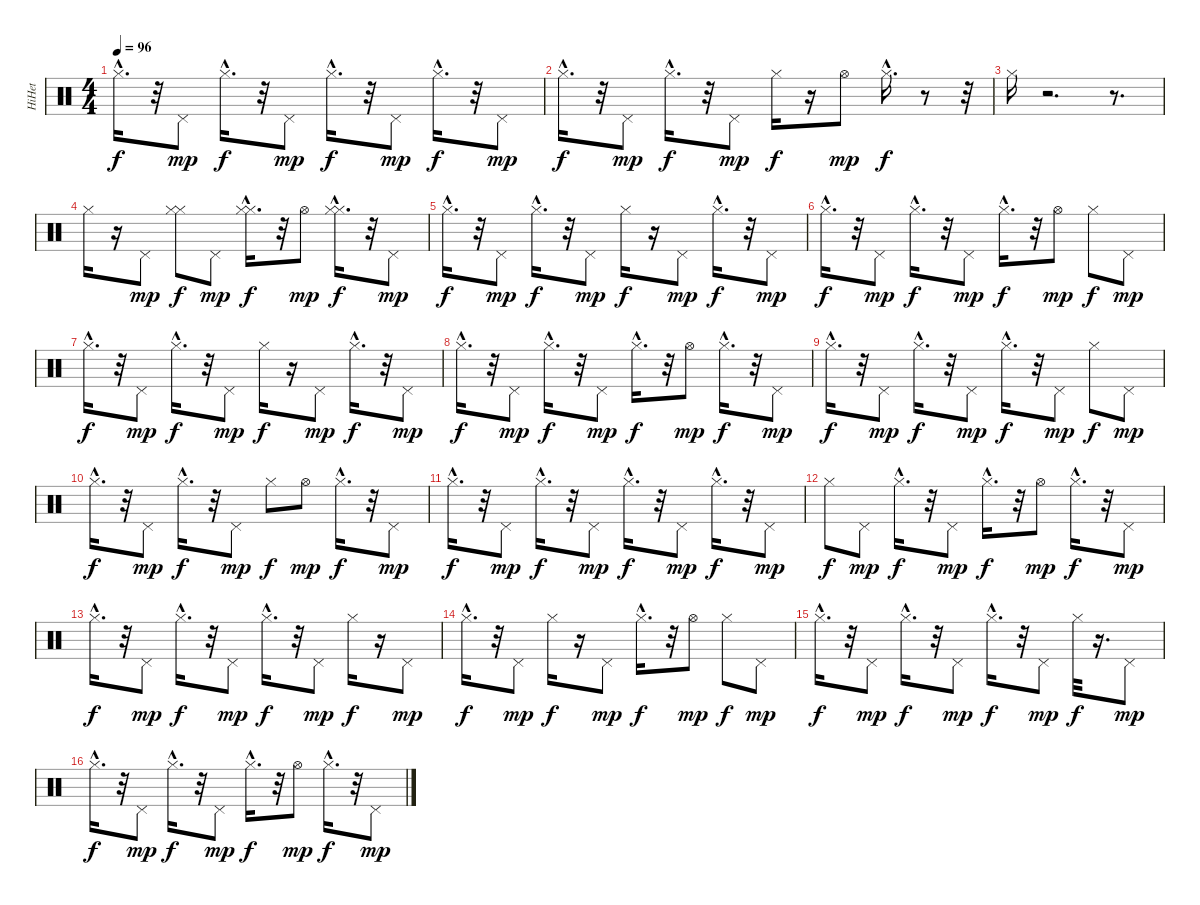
\track ("HiHet" "HiHet") {instrument percussion}
\staff {score}
\articulation defaults
\ts (4 4)
\tempo 96
\clef neutral
\ks c "Hi-Hat (closed)"{hac}.16{d dy f}
r.32 "Pedal Hi-Hat (hit)".8{dy mp} "Hi-Hat (closed)"{hac}.16{d dy f} r.32 "Pedal Hi-Hat (hit)".8{dy mp} "Hi-Hat (closed)"{hac}.16{d dy f} r.32 "Pedal Hi-Hat (hit)".8{dy mp} "Hi-Hat (closed)"{hac}.16{d dy f} r.32 "Pedal Hi-Hat (hit)".8{dy mp} |
"Hi-Hat (closed)"{hac}.16{d dy f} r.32 "Pedal Hi-Hat (hit)".8{dy mp} "Hi-Hat (closed)"{hac}.16{d dy f} r.32 "Pedal Hi-Hat (hit)".8{dy mp} "Hi-Hat (closed)".16{dy f} r.16 "Hi-Hat (open)".8{dy mp} "Hi-Hat (closed)"{hac}.16{d dy f} r.8 r.32 |
"Hi-Hat (closed)".16 r.2{d} r.8{d} |
"Hi-Hat (closed)".16 r.16 "Pedal Hi-Hat (hit)".8{dy mp} ("Hi-Hat (closed)" "Hi-Hat (closed)").8{dy f} "Pedal Hi-Hat (hit)".8{dy mp} ("Hi-Hat (closed)"{hac} "Hi-Hat (closed)"{hac}).16{d dy f} r.32 "Hi-Hat (open)".8{dy mp} ("Hi-Hat (closed)"{hac} "Hi-Hat (closed)"{hac}).16{d dy f} r.32 "Pedal Hi-Hat (hit)".8{dy mp} |
"Hi-Hat (closed)"{hac}.16{d dy f} r.32 "Pedal Hi-Hat (hit)".8{dy mp} "Hi-Hat (closed)"{hac}.16{d dy f} r.32 "Pedal Hi-Hat (hit)".8{dy mp} "Hi-Hat (closed)".16{dy f} r.16 "Pedal Hi-Hat (hit)".8{dy mp} "Hi-Hat (closed)"{hac}.16{d dy f} r.32 "Pedal Hi-Hat (hit)".8{dy mp} |
"Hi-Hat (closed)"{hac}.16{d dy f} r.32 "Pedal Hi-Hat (hit)".8{dy mp} "Hi-Hat (closed)"{hac}.16{d dy f} r.32 "Pedal Hi-Hat (hit)".8{dy mp} "Hi-Hat (closed)"{hac}.16{d dy f} r.32 "Hi-Hat (open)".8{dy mp} "Hi-Hat (closed)".8{dy f} "Pedal Hi-Hat (hit)".8{dy mp} |
"Hi-Hat (closed)"{hac}.16{d dy f} r.32 "Pedal Hi-Hat (hit)".8{dy mp} "Hi-Hat (closed)"{hac}.16{d dy f} r.32 "Pedal Hi-Hat (hit)".8{dy mp} "Hi-Hat (closed)".16{dy f} r.16 "Pedal Hi-Hat (hit)".8{dy mp} "Hi-Hat (closed)"{hac}.16{d dy f} r.32 "Pedal Hi-Hat (hit)".8{dy mp} |
"Hi-Hat (closed)"{hac}.16{d dy f} r.32 "Pedal Hi-Hat (hit)".8{dy mp} "Hi-Hat (closed)"{hac}.16{d dy f} r.32 "Pedal Hi-Hat (hit)".8{dy mp} "Hi-Hat (closed)"{hac}.16{d dy f} r.32 "Hi-Hat (open)".8{dy mp} "Hi-Hat (closed)"{hac}.16{d dy f} r.32 "Pedal Hi-Hat (hit)".8{dy mp} |
"Hi-Hat (closed)"{hac}.16{d dy f} r.32 "Pedal Hi-Hat (hit)".8{dy mp} "Hi-Hat (closed)"{hac}.16{d dy f} r.32 "Pedal Hi-Hat (hit)".8{dy mp} "Hi-Hat (closed)"{hac}.16{d dy f} r.32 "Pedal Hi-Hat (hit)".8{dy mp} "Hi-Hat (closed)".8{dy f} "Pedal Hi-Hat (hit)".8{dy mp} |
"Hi-Hat (closed)"{hac}.16{d dy f} r.32 "Pedal Hi-Hat (hit)".8{dy mp} "Hi-Hat (closed)"{hac}.16{d dy f} r.32 "Pedal Hi-Hat (hit)".8{dy mp} "Hi-Hat (closed)".8{dy f} "Hi-Hat (open)".8{dy mp} "Hi-Hat (closed)"{hac}.16{d dy f} r.32 "Pedal Hi-Hat (hit)".8{dy mp} |
"Hi-Hat (closed)"{hac}.16{d dy f} r.32 "Pedal Hi-Hat (hit)".8{dy mp} "Hi-Hat (closed)"{hac}.16{d dy f} r.32 "Pedal Hi-Hat (hit)".8{dy mp} "Hi-Hat (closed)"{hac}.16{d dy f} r.32 "Pedal Hi-Hat (hit)".8{dy mp} "Hi-Hat (closed)"{hac}.16{d dy f} r.32 "Pedal Hi-Hat (hit)".8{dy mp} |
"Hi-Hat (closed)".8{dy f} "Pedal Hi-Hat (hit)".8{dy mp} "Hi-Hat (closed)"{hac}.16{d dy f} r.32 "Pedal Hi-Hat (hit)".8{dy mp} "Hi-Hat (closed)"{hac}.16{d dy f} r.32 "Hi-Hat (open)".8{dy mp} "Hi-Hat (closed)"{hac}.16{d dy f} r.32 "Pedal Hi-Hat (hit)".8{dy mp} |
"Hi-Hat (closed)"{hac}.16{d dy f} r.32 "Pedal Hi-Hat (hit)".8{dy mp} "Hi-Hat (closed)"{hac}.16{d dy f} r.32 "Pedal Hi-Hat (hit)".8{dy mp} "Hi-Hat (closed)"{hac}.16{d dy f} r.32 "Pedal Hi-Hat (hit)".8{dy mp} "Hi-Hat (closed)".16{dy f} r.16 "Pedal Hi-Hat (hit)".8{dy mp} |
"Hi-Hat (closed)"{hac}.16{d dy f} r.32 "Pedal Hi-Hat (hit)".8{dy mp} "Hi-Hat (closed)".16{dy f} r.16 "Pedal Hi-Hat (hit)".8{dy mp} "Hi-Hat (closed)"{hac}.16{d dy f} r.32 "Hi-Hat (open)".8{dy mp} "Hi-Hat (closed)".8{dy f} "Pedal Hi-Hat (hit)".8{dy mp} |
"Hi-Hat (closed)"{hac}.16{d dy f} r.32 "Pedal Hi-Hat (hit)".8{dy mp} "Hi-Hat (closed)"{hac}.16{d dy f} r.32 "Pedal Hi-Hat (hit)".8{dy mp} "Hi-Hat (closed)"{hac}.16{d dy f} r.32 "Pedal Hi-Hat (hit)".8{dy mp} "Hi-Hat (closed)".32{dy f} r.16{d} "Pedal Hi-Hat (hit)".8{dy mp} |
"Hi-Hat (closed)"{hac}.16{d dy f} r.32 "Pedal Hi-Hat (hit)".8{dy mp} "Hi-Hat (closed)"{hac}.16{d dy f} r.32 "Pedal Hi-Hat (hit)".8{dy mp} "Hi-Hat (closed)"{hac}.16{d dy f} r.32 "Hi-Hat (open)".8{dy mp} "Hi-Hat (closed)"{hac}.16{d dy f} r.32 "Pedal Hi-Hat (hit)".8{dy mp}
